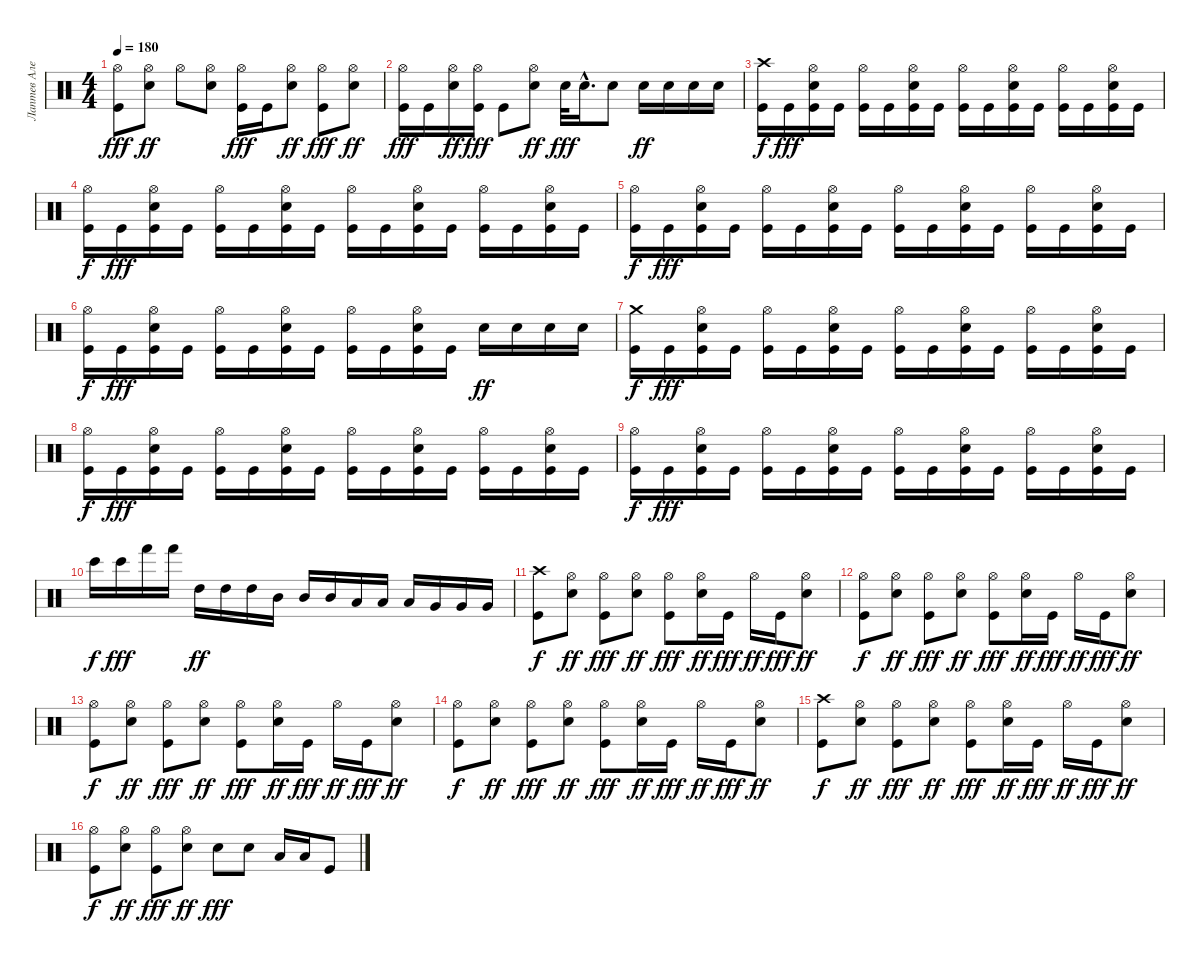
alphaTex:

\track ("Лаптев Алексей" "Лаптев Але") {instrument percussion}
\staff {score}
\articulation defaults
\ts (4 4)
\tempo 180
\clef neutral
\ks c
("Hi-Hat (open)" "Kick (hit)").8{dy fff} ("Hi-Hat (open)" "Snare (hit) 2").8{dy ff} "Hi-Hat (open)".8 ("Snare (hit) 2" "Hi-Hat (open)").8 ("Hi-Hat (open)" "Kick (hit)").16{dy fff} "Kick (hit)".16 ("Hi-Hat (open)" "Snare (hit) 2").8{dy ff} ("Hi-Hat (open)" "Kick (hit)").8{dy fff} ("Hi-Hat (open)" "Snare (hit) 2").8{dy ff} |
("Hi-Hat (open)" "Kick (hit)").16{dy fff} "Kick (hit)".16 ("Hi-Hat (open)" "Snare (hit) 2").16{dy ff} ("Hi-Hat (open)" "Kick (hit)").16{dy fff} "Kick (hit)".8 ("Snare (hit) 2" "Hi-Hat (open)").8{dy ff} "Snare (hit) 2".32{dy fff} "Snare (hit) 2"{hac}.16{d} "Snare (hit) 2".8 "Snare (hit) 2".16{dy ff} "Snare (hit) 2".16 "Snare (hit) 2".16 "Snare (hit) 2".16 |
("Crash high (hit)" "Kick (hit)").16{dy f} "Kick (hit)".16{dy fff} ("Hi-Hat (open)" "Snare (hit) 2" "Kick (hit)").16 "Kick (hit)".16 ("Hi-Hat (open)" "Kick (hit)").16 "Kick (hit)".16 ("Hi-Hat (open)" "Snare (hit) 2" "Kick (hit)").16 "Kick (hit)".16 ("Hi-Hat (open)" "Kick (hit)").16 "Kick (hit)".16 ("Hi-Hat (open)" "Snare (hit) 2" "Kick (hit)").16 "Kick (hit)".16 ("Hi-Hat (open)" "Kick (hit)").16 "Kick (hit)".16 ("Snare (hit) 2" "Hi-Hat (open)" "Kick (hit)").16 "Kick (hit)".16 |
("Hi-Hat (open)" "Kick (hit)").16{dy f} "Kick (hit)".16{dy fff} ("Hi-Hat (open)" "Snare (hit) 2" "Kick (hit)").16 "Kick (hit)".16 ("Hi-Hat (open)" "Kick (hit)").16 "Kick (hit)".16 ("Hi-Hat (open)" "Snare (hit) 2" "Kick (hit)").16 "Kick (hit)".16 ("Hi-Hat (open)" "Kick (hit)").16 "Kick (hit)".16 ("Hi-Hat (open)" "Snare (hit) 2" "Kick (hit)").16 "Kick (hit)".16 ("Hi-Hat (open)" "Kick (hit)").16 "Kick (hit)".16 ("Snare (hit) 2" "Hi-Hat (open)" "Kick (hit)").16 "Kick (hit)".16 |
("Hi-Hat (open)" "Kick (hit)").16{dy f} "Kick (hit)".16{dy fff} ("Hi-Hat (open)" "Snare (hit) 2" "Kick (hit)").16 "Kick (hit)".16 ("Hi-Hat (open)" "Kick (hit)").16 "Kick (hit)".16 ("Hi-Hat (open)" "Snare (hit) 2" "Kick (hit)").16 "Kick (hit)".16 ("Hi-Hat (open)" "Kick (hit)").16 "Kick (hit)".16 ("Hi-Hat (open)" "Snare (hit) 2" "Kick (hit)").16 "Kick (hit)".16 ("Hi-Hat (open)" "Kick (hit)").16 "Kick (hit)".16 ("Snare (hit) 2" "Hi-Hat (open)" "Kick (hit)").16 "Kick (hit)".16 |
("Hi-Hat (open)" "Kick (hit)").16{dy f} "Kick (hit)".16{dy fff} ("Hi-Hat (open)" "Snare (hit) 2" "Kick (hit)").16 "Kick (hit)".16 ("Hi-Hat (open)" "Kick (hit)").16 "Kick (hit)".16 ("Hi-Hat (open)" "Snare (hit) 2" "Kick (hit)").16 "Kick (hit)".16 ("Hi-Hat (open)" "Kick (hit)").16 "Kick (hit)".16 ("Hi-Hat (open)" "Snare (hit) 2" "Kick (hit)").16 "Kick (hit)".16 "Snare (hit) 2".16{dy ff} "Snare (hit) 2".16 "Snare (hit) 2".16 "Snare (hit) 2".16 |
("Crash medium (hit)" "Kick (hit)").16{dy f} "Kick (hit)".16{dy fff} ("Hi-Hat (open)" "Snare (hit) 2" "Kick (hit)").16 "Kick (hit)".16 ("Hi-Hat (open)" "Kick (hit)").16 "Kick (hit)".16 ("Hi-Hat (open)" "Snare (hit) 2" "Kick (hit)").16 "Kick (hit)".16 ("Hi-Hat (open)" "Kick (hit)").16 "Kick (hit)".16 ("Hi-Hat (open)" "Snare (hit) 2" "Kick (hit)").16 "Kick (hit)".16 ("Hi-Hat (open)" "Kick (hit)").16 "Kick (hit)".16 ("Snare (hit) 2" "Hi-Hat (open)" "Kick (hit)").16 "Kick (hit)".16 |
("Hi-Hat (open)" "Kick (hit)").16{dy f} "Kick (hit)".16{dy fff} ("Hi-Hat (open)" "Snare (hit) 2" "Kick (hit)").16 "Kick (hit)".16 ("Hi-Hat (open)" "Kick (hit)").16 "Kick (hit)".16 ("Hi-Hat (open)" "Snare (hit) 2" "Kick (hit)").16 "Kick (hit)".16 ("Hi-Hat (open)" "Kick (hit)").16 "Kick (hit)".16 ("Hi-Hat (open)" "Snare (hit) 2" "Kick (hit)").16 "Kick (hit)".16 ("Hi-Hat (open)" "Kick (hit)").16 "Kick (hit)".16 ("Snare (hit) 2" "Hi-Hat (open)" "Kick (hit)").16 "Kick (hit)".16 |
("Hi-Hat (open)" "Kick (hit)").16{dy f} "Kick (hit)".16{dy fff} ("Hi-Hat (open)" "Snare (hit) 2" "Kick (hit)").16 "Kick (hit)".16 ("Hi-Hat (open)" "Kick (hit)").16 "Kick (hit)".16 ("Hi-Hat (open)" "Snare (hit) 2" "Kick (hit)").16 "Kick (hit)".16 ("Hi-Hat (open)" "Kick (hit)").16 "Kick (hit)".16 ("Hi-Hat (open)" "Snare (hit) 2" "Kick (hit)").16 "Kick (hit)".16 ("Hi-Hat (open)" "Kick (hit)").16 "Kick (hit)".16 ("Snare (hit) 2" "Hi-Hat (open)" "Kick (hit)").16 "Kick (hit)".16 |
"Bongo High (hit)".16{dy f} "Bongo High (hit)".16{dy fff} "Hand (hit)".16 "Hand (hit)".16 "High Tom (hit)".16{dy ff} "High Tom (hit)".16 "High Tom (hit)".16 "Mid Tom (hit)".16 "Mid Tom (hit)".16 "Mid Tom (hit)".16 "Low Tom (hit)".16 "Low Tom (hit)".16 "Low Tom (hit)".16 "Very Low Tom (hit)".16 "Very Low Tom (hit)".16 "Very Low Tom (hit)".16 |
("Crash high (hit)" "Kick (hit)").8{dy f} ("Hi-Hat (open)" "Snare (hit) 2").8{dy ff} ("Hi-Hat (open)" "Kick (hit)").8{dy fff} ("Hi-Hat (open)" "Snare (hit) 2").8{dy ff} ("Hi-Hat (open)" "Kick (hit)").8{dy fff} ("Hi-Hat (open)" "Snare (hit) 2").16{dy ff} "Kick (hit)".16{dy fff} "Hi-Hat (open)".16{dy ff} "Kick (hit)".16{dy fff} ("Snare (hit) 2" "Hi-Hat (open)").8{dy ff} |
("Hi-Hat (open)" "Kick (hit)").8{dy f} ("Hi-Hat (open)" "Snare (hit) 2").8{dy ff} ("Hi-Hat (open)" "Kick (hit)").8{dy fff} ("Hi-Hat (open)" "Snare (hit) 2").8{dy ff} ("Hi-Hat (open)" "Kick (hit)").8{dy fff} ("Hi-Hat (open)" "Snare (hit) 2").16{dy ff} "Kick (hit)".16{dy fff} "Hi-Hat (open)".16{dy ff} "Kick (hit)".16{dy fff} ("Snare (hit) 2" "Hi-Hat (open)").8{dy ff} |
("Hi-Hat (open)" "Kick (hit)").8{dy f} ("Hi-Hat (open)" "Snare (hit) 2").8{dy ff} ("Hi-Hat (open)" "Kick (hit)").8{dy fff} ("Hi-Hat (open)" "Snare (hit) 2").8{dy ff} ("Hi-Hat (open)" "Kick (hit)").8{dy fff} ("Hi-Hat (open)" "Snare (hit) 2").16{dy ff} "Kick (hit)".16{dy fff} "Hi-Hat (open)".16{dy ff} "Kick (hit)".16{dy fff} ("Snare (hit) 2" "Hi-Hat (open)").8{dy ff} |
("Hi-Hat (open)" "Kick (hit)").8{dy f} ("Hi-Hat (open)" "Snare (hit) 2").8{dy ff} ("Hi-Hat (open)" "Kick (hit)").8{dy fff} ("Hi-Hat (open)" "Snare (hit) 2").8{dy ff} ("Hi-Hat (open)" "Kick (hit)").8{dy fff} ("Hi-Hat (open)" "Snare (hit) 2").16{dy ff} "Kick (hit)".16{dy fff} "Hi-Hat (open)".16{dy ff} "Kick (hit)".16{dy fff} ("Snare (hit) 2" "Hi-Hat (open)").8{dy ff} |
("Crash high (hit)" "Kick (hit)").8{dy f} ("Hi-Hat (open)" "Snare (hit) 2").8{dy ff} ("Hi-Hat (open)" "Kick (hit)").8{dy fff} ("Hi-Hat (open)" "Snare (hit) 2").8{dy ff} ("Hi-Hat (open)" "Kick (hit)").8{dy fff} ("Hi-Hat (open)" "Snare (hit) 2").16{dy ff} "Kick (hit)".16{dy fff} "Hi-Hat (open)".16{dy ff} "Kick (hit)".16{dy fff} ("Snare (hit) 2" "Hi-Hat (open)").8{dy ff} |
("Hi-Hat (open)" "Kick (hit)").8{dy f} ("Hi-Hat (open)" "Snare (hit) 2").8{dy ff} ("Hi-Hat (open)" "Kick (hit)").8{dy fff} ("Hi-Hat (open)" "Snare (hit) 2").8{dy ff} "Snare (hit) 2".8{dy fff} "Snare (hit) 2".8 "Low Tom (hit)".16 "Low Tom (hit)".16 "Kick (hit)".8
